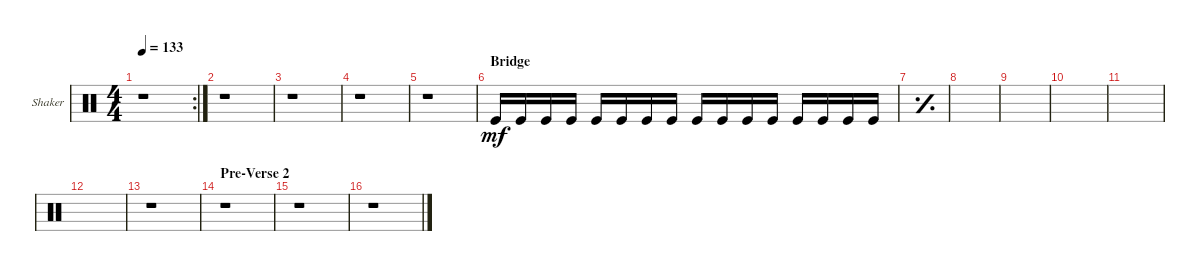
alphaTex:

\defaultSystemsLayout 4
\bracketExtendMode groupsimilarinstruments
\firstSystemTrackNameOrientation horizontal
\otherSystemsTrackNameOrientation horizontal
\chordDiagramsInScore
\track ("Shaker" "Shaker") {instrument percussion}
\staff {score}
\articulation defaults
\rc 2
\ts (4 4)
\tempo 133
\clef neutral
\scale
0.355932
\ks c
r.1{dy mf} |
\scale
0.322034 r.1 |
\scale
0.333333 r.1 |
\scale
0.333333 r.1 |
\scale
0.333333 r.1 |
\section ("" "Bridge")
"Kick (hit)".16 "Kick (hit)".16 "Kick (hit)".16 "Kick (hit)".16 "Kick (hit)".16 "Kick (hit)".16 "Kick (hit)".16 "Kick (hit)".16 "Kick (hit)".16 "Kick (hit)".16 "Kick (hit)".16 "Kick (hit)".16 "Kick (hit)".16 "Kick (hit)".16 "Kick (hit)".16 "Kick (hit)".16 |
\simile simple
|
|
|
|
|
|
\simile none
r.1 |
\section ("" "Pre-Verse 2")
r.1 |
r.1 |
r.1
